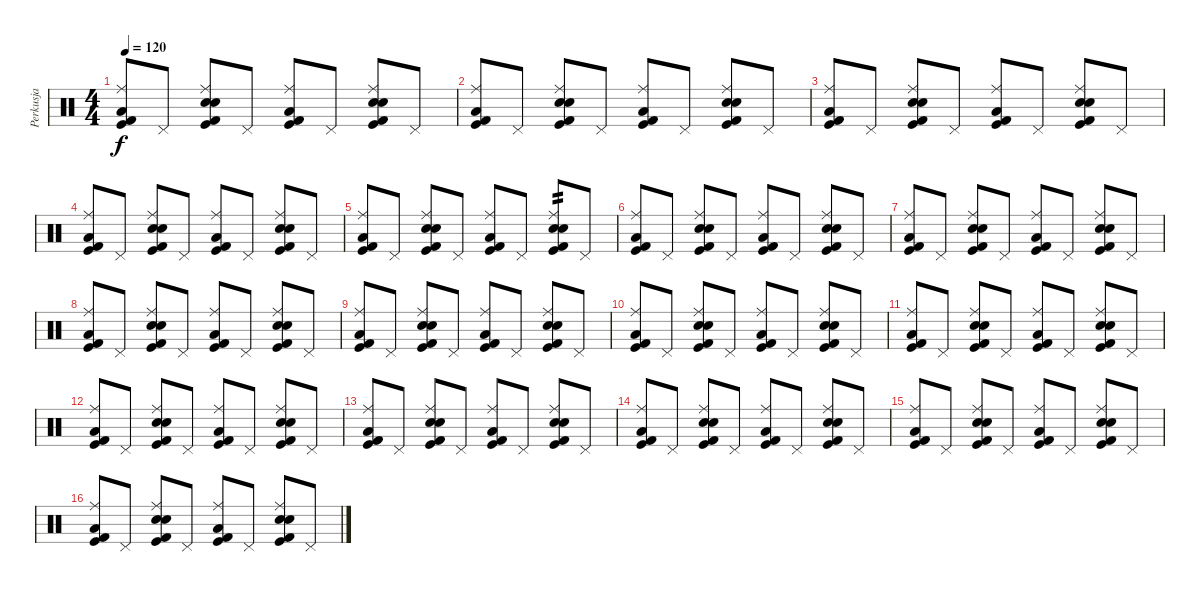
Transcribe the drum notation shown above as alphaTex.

\track ("Perkusja" "Perkusja") {instrument percussion}
\staff {score}
\articulation defaults
\ts (4 4)
\tempo 120
\clef neutral
\ks c
("Kick (hit) 2" "Kick (hit)" "Low Floor Tom (hit)" "Ride (middle)").8{dy f} "Pedal Hi-Hat (hit)".8 ("Kick (hit) 2" "Kick (hit)" "Snare (hit) 2" "Electric Snare (hit)" "Ride (middle)").8 "Pedal Hi-Hat (hit)".8 ("Kick (hit) 2" "Kick (hit)" "Low Floor Tom (hit)" "Ride (middle)").8 "Pedal Hi-Hat (hit)".8 ("Kick (hit) 2" "Kick (hit)" "Snare (hit) 2" "Electric Snare (hit)" "Ride (middle)").8 "Pedal Hi-Hat (hit)".8 |
("Kick (hit) 2" "Kick (hit)" "Low Floor Tom (hit)" "Ride (middle)").8 "Pedal Hi-Hat (hit)".8 ("Kick (hit) 2" "Kick (hit)" "Snare (hit) 2" "Electric Snare (hit)" "Ride (middle)").8 "Pedal Hi-Hat (hit)".8 ("Kick (hit) 2" "Kick (hit)" "Low Floor Tom (hit)" "Ride (middle)").8 "Pedal Hi-Hat (hit)".8 ("Kick (hit) 2" "Kick (hit)" "Snare (hit) 2" "Electric Snare (hit)" "Ride (middle)").8 "Pedal Hi-Hat (hit)".8 |
("Kick (hit) 2" "Kick (hit)" "Low Floor Tom (hit)" "Ride (middle)").8 "Pedal Hi-Hat (hit)".8 ("Kick (hit) 2" "Kick (hit)" "Snare (hit) 2" "Electric Snare (hit)" "Ride (middle)").8 "Pedal Hi-Hat (hit)".8 ("Kick (hit) 2" "Kick (hit)" "Low Floor Tom (hit)" "Ride (middle)").8 "Pedal Hi-Hat (hit)".8 ("Kick (hit) 2" "Kick (hit)" "Snare (hit) 2" "Electric Snare (hit)" "Ride (middle)").8 "Pedal Hi-Hat (hit)".8 |
("Kick (hit) 2" "Kick (hit)" "Low Floor Tom (hit)" "Ride (middle)").8 "Pedal Hi-Hat (hit)".8 ("Kick (hit) 2" "Kick (hit)" "Snare (hit) 2" "Electric Snare (hit)" "Ride (middle)").8 "Pedal Hi-Hat (hit)".8 ("Kick (hit) 2" "Kick (hit)" "Low Floor Tom (hit)" "Ride (middle)").8 "Pedal Hi-Hat (hit)".8 ("Kick (hit) 2" "Kick (hit)" "Snare (hit) 2" "Electric Snare (hit)" "Ride (middle)").8 "Pedal Hi-Hat (hit)".8 |
("Kick (hit) 2" "Kick (hit)" "Low Floor Tom (hit)" "Ride (middle)").8 "Pedal Hi-Hat (hit)".8 ("Kick (hit) 2" "Kick (hit)" "Snare (hit) 2" "Electric Snare (hit)" "Ride (middle)").8 "Pedal Hi-Hat (hit)".8 ("Kick (hit) 2" "Kick (hit)" "Low Floor Tom (hit)" "Ride (middle)").8 "Pedal Hi-Hat (hit)".8 ("Kick (hit) 2" "Kick (hit)" "Snare (hit) 2" "Electric Snare (hit)" "Ride (middle)").8{tp 2} "Pedal Hi-Hat (hit)".8 |
("Kick (hit) 2" "Kick (hit)" "Low Floor Tom (hit)" "Ride (middle)").8 "Pedal Hi-Hat (hit)".8 ("Kick (hit) 2" "Kick (hit)" "Snare (hit) 2" "Electric Snare (hit)" "Ride (middle)").8 "Pedal Hi-Hat (hit)".8 ("Kick (hit) 2" "Kick (hit)" "Low Floor Tom (hit)" "Ride (middle)").8 "Pedal Hi-Hat (hit)".8 ("Kick (hit) 2" "Kick (hit)" "Snare (hit) 2" "Electric Snare (hit)" "Ride (middle)").8 "Pedal Hi-Hat (hit)".8 |
("Kick (hit) 2" "Kick (hit)" "Low Floor Tom (hit)" "Ride (middle)").8 "Pedal Hi-Hat (hit)".8 ("Kick (hit) 2" "Kick (hit)" "Snare (hit) 2" "Electric Snare (hit)" "Ride (middle)").8 "Pedal Hi-Hat (hit)".8 ("Kick (hit) 2" "Kick (hit)" "Low Floor Tom (hit)" "Ride (middle)").8 "Pedal Hi-Hat (hit)".8 ("Kick (hit) 2" "Kick (hit)" "Snare (hit) 2" "Electric Snare (hit)" "Ride (middle)").8 "Pedal Hi-Hat (hit)".8 |
("Kick (hit) 2" "Kick (hit)" "Low Floor Tom (hit)" "Ride (middle)").8 "Pedal Hi-Hat (hit)".8 ("Kick (hit) 2" "Kick (hit)" "Snare (hit) 2" "Electric Snare (hit)" "Ride (middle)").8 "Pedal Hi-Hat (hit)".8 ("Kick (hit) 2" "Kick (hit)" "Low Floor Tom (hit)" "Ride (middle)").8 "Pedal Hi-Hat (hit)".8 ("Kick (hit) 2" "Kick (hit)" "Snare (hit) 2" "Electric Snare (hit)" "Ride (middle)").8 "Pedal Hi-Hat (hit)".8 |
("Kick (hit) 2" "Kick (hit)" "Low Floor Tom (hit)" "Ride (middle)").8 "Pedal Hi-Hat (hit)".8 ("Kick (hit) 2" "Kick (hit)" "Snare (hit) 2" "Electric Snare (hit)" "Ride (middle)").8 "Pedal Hi-Hat (hit)".8 ("Kick (hit) 2" "Kick (hit)" "Low Floor Tom (hit)" "Ride (middle)").8 "Pedal Hi-Hat (hit)".8 ("Kick (hit) 2" "Kick (hit)" "Snare (hit) 2" "Electric Snare (hit)" "Ride (middle)").8 "Pedal Hi-Hat (hit)".8 |
("Kick (hit) 2" "Kick (hit)" "Low Floor Tom (hit)" "Ride (middle)").8 "Pedal Hi-Hat (hit)".8 ("Kick (hit) 2" "Kick (hit)" "Snare (hit) 2" "Electric Snare (hit)" "Ride (middle)").8 "Pedal Hi-Hat (hit)".8 ("Kick (hit) 2" "Kick (hit)" "Low Floor Tom (hit)" "Ride (middle)").8 "Pedal Hi-Hat (hit)".8 ("Kick (hit) 2" "Kick (hit)" "Snare (hit) 2" "Electric Snare (hit)" "Ride (middle)").8 "Pedal Hi-Hat (hit)".8 |
("Kick (hit) 2" "Kick (hit)" "Low Floor Tom (hit)" "Ride (middle)").8 "Pedal Hi-Hat (hit)".8 ("Kick (hit) 2" "Kick (hit)" "Snare (hit) 2" "Electric Snare (hit)" "Ride (middle)").8 "Pedal Hi-Hat (hit)".8 ("Kick (hit) 2" "Kick (hit)" "Low Floor Tom (hit)" "Ride (middle)").8 "Pedal Hi-Hat (hit)".8 ("Kick (hit) 2" "Kick (hit)" "Snare (hit) 2" "Electric Snare (hit)" "Ride (middle)").8 "Pedal Hi-Hat (hit)".8 |
("Kick (hit) 2" "Kick (hit)" "Low Floor Tom (hit)" "Ride (middle)").8 "Pedal Hi-Hat (hit)".8 ("Kick (hit) 2" "Kick (hit)" "Snare (hit) 2" "Electric Snare (hit)" "Ride (middle)").8 "Pedal Hi-Hat (hit)".8 ("Kick (hit) 2" "Kick (hit)" "Low Floor Tom (hit)" "Ride (middle)").8 "Pedal Hi-Hat (hit)".8 ("Kick (hit) 2" "Kick (hit)" "Snare (hit) 2" "Electric Snare (hit)" "Ride (middle)").8 "Pedal Hi-Hat (hit)".8 |
("Kick (hit) 2" "Kick (hit)" "Low Floor Tom (hit)" "Ride (middle)").8 "Pedal Hi-Hat (hit)".8 ("Kick (hit) 2" "Kick (hit)" "Snare (hit) 2" "Electric Snare (hit)" "Ride (middle)").8 "Pedal Hi-Hat (hit)".8 ("Kick (hit) 2" "Kick (hit)" "Low Floor Tom (hit)" "Ride (middle)").8 "Pedal Hi-Hat (hit)".8 ("Kick (hit) 2" "Kick (hit)" "Snare (hit) 2" "Electric Snare (hit)" "Ride (middle)").8 "Pedal Hi-Hat (hit)".8 |
("Kick (hit) 2" "Kick (hit)" "Low Floor Tom (hit)" "Ride (middle)").8 "Pedal Hi-Hat (hit)".8 ("Kick (hit) 2" "Kick (hit)" "Snare (hit) 2" "Electric Snare (hit)" "Ride (middle)").8 "Pedal Hi-Hat (hit)".8 ("Kick (hit) 2" "Kick (hit)" "Low Floor Tom (hit)" "Ride (middle)").8 "Pedal Hi-Hat (hit)".8 ("Kick (hit) 2" "Kick (hit)" "Snare (hit) 2" "Electric Snare (hit)" "Ride (middle)").8 "Pedal Hi-Hat (hit)".8 |
("Kick (hit) 2" "Kick (hit)" "Low Floor Tom (hit)" "Ride (middle)").8 "Pedal Hi-Hat (hit)".8 ("Kick (hit) 2" "Kick (hit)" "Snare (hit) 2" "Electric Snare (hit)" "Ride (middle)").8 "Pedal Hi-Hat (hit)".8 ("Kick (hit) 2" "Kick (hit)" "Low Floor Tom (hit)" "Ride (middle)").8 "Pedal Hi-Hat (hit)".8 ("Kick (hit) 2" "Kick (hit)" "Snare (hit) 2" "Electric Snare (hit)" "Ride (middle)").8 "Pedal Hi-Hat (hit)".8 |
("Kick (hit) 2" "Kick (hit)" "Low Floor Tom (hit)" "Ride (middle)").8 "Pedal Hi-Hat (hit)".8 ("Kick (hit) 2" "Kick (hit)" "Snare (hit) 2" "Electric Snare (hit)" "Ride (middle)").8 "Pedal Hi-Hat (hit)".8 ("Kick (hit) 2" "Kick (hit)" "Low Floor Tom (hit)" "Ride (middle)").8 "Pedal Hi-Hat (hit)".8 ("Kick (hit) 2" "Kick (hit)" "Snare (hit) 2" "Electric Snare (hit)" "Ride (middle)").8 "Pedal Hi-Hat (hit)".8
